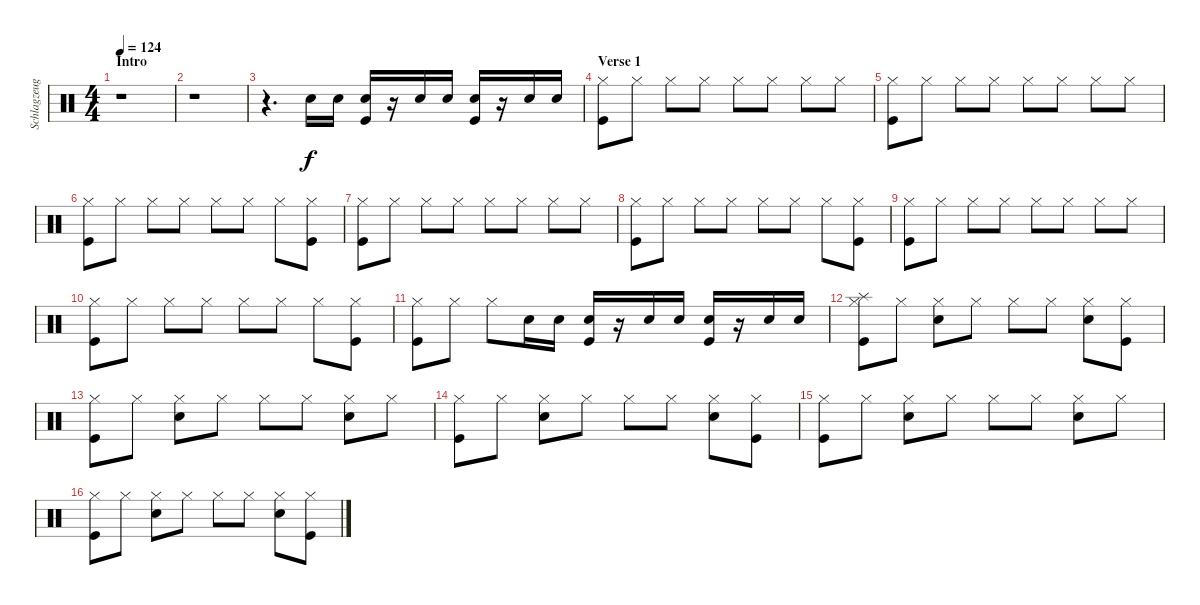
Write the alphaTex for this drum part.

\track ("Schlagzeug - Bela B." "Schlagzeug") {instrument percussion}
\staff {score}
\articulation defaults
\ts (4 4)
\section ("" "Intro")
\tempo 124
\clef neutral
\ks c
r.1{dy f} |
r.1 |
r.4{d} "Snare (hit) 2".16 "Snare (hit) 2".16 ("Snare (hit) 2" "Kick (hit)").16 r.16 "Snare (hit) 2".16 "Snare (hit) 2".16 ("Snare (hit) 2" "Kick (hit)").16 r.16 "Snare (hit) 2".16 "Snare (hit) 2".16 |
\section ("" "Verse 1")
("Kick (hit)" "Hi-Hat (closed)").8 "Hi-Hat (closed)".8 "Hi-Hat (closed)".8 "Hi-Hat (closed)".8 "Hi-Hat (closed)".8 "Hi-Hat (closed)".8 "Hi-Hat (closed)".8 "Hi-Hat (closed)".8 |
("Kick (hit)" "Hi-Hat (closed)").8 "Hi-Hat (closed)".8 "Hi-Hat (closed)".8 "Hi-Hat (closed)".8 "Hi-Hat (closed)".8 "Hi-Hat (closed)".8 "Hi-Hat (closed)".8 "Hi-Hat (closed)".8 |
("Kick (hit)" "Hi-Hat (closed)").8 "Hi-Hat (closed)".8 "Hi-Hat (closed)".8 "Hi-Hat (closed)".8 "Hi-Hat (closed)".8 "Hi-Hat (closed)".8 "Hi-Hat (closed)".8 ("Hi-Hat (closed)" "Kick (hit)").8 |
("Kick (hit)" "Hi-Hat (closed)").8 "Hi-Hat (closed)".8 "Hi-Hat (closed)".8 "Hi-Hat (closed)".8 "Hi-Hat (closed)".8 "Hi-Hat (closed)".8 "Hi-Hat (closed)".8 "Hi-Hat (closed)".8 |
("Kick (hit)" "Hi-Hat (closed)").8 "Hi-Hat (closed)".8 "Hi-Hat (closed)".8 "Hi-Hat (closed)".8 "Hi-Hat (closed)".8 "Hi-Hat (closed)".8 "Hi-Hat (closed)".8 ("Hi-Hat (closed)" "Kick (hit)").8 |
("Kick (hit)" "Hi-Hat (closed)").8 "Hi-Hat (closed)".8 "Hi-Hat (closed)".8 "Hi-Hat (closed)".8 "Hi-Hat (closed)".8 "Hi-Hat (closed)".8 "Hi-Hat (closed)".8 "Hi-Hat (closed)".8 |
("Kick (hit)" "Hi-Hat (closed)").8 "Hi-Hat (closed)".8 "Hi-Hat (closed)".8 "Hi-Hat (closed)".8 "Hi-Hat (closed)".8 "Hi-Hat (closed)".8 "Hi-Hat (closed)".8 ("Hi-Hat (closed)" "Kick (hit)").8 |
("Kick (hit)" "Hi-Hat (closed)").8 "Hi-Hat (closed)".8 "Hi-Hat (closed)".8 "Snare (hit) 2".16 "Snare (hit) 2".16 ("Snare (hit) 2" "Kick (hit)").16 r.16 "Snare (hit) 2".16 "Snare (hit) 2".16 ("Snare (hit) 2" "Kick (hit)").16 r.16 "Snare (hit) 2".16 "Snare (hit) 2".16 |
("Kick (hit)" "Hi-Hat (closed)" "Splash (hit)").8 "Hi-Hat (closed)".8 ("Hi-Hat (closed)" "Snare (hit) 2").8 "Hi-Hat (closed)".8 "Hi-Hat (closed)".8 "Hi-Hat (closed)".8 ("Hi-Hat (closed)" "Snare (hit) 2").8 ("Hi-Hat (closed)" "Kick (hit)").8 |
("Kick (hit)" "Hi-Hat (closed)").8 "Hi-Hat (closed)".8 ("Hi-Hat (closed)" "Snare (hit) 2").8 "Hi-Hat (closed)".8 "Hi-Hat (closed)".8 "Hi-Hat (closed)".8 ("Hi-Hat (closed)" "Snare (hit) 2").8 "Hi-Hat (closed)".8 |
("Kick (hit)" "Hi-Hat (closed)").8 "Hi-Hat (closed)".8 ("Hi-Hat (closed)" "Snare (hit) 2").8 "Hi-Hat (closed)".8 "Hi-Hat (closed)".8 "Hi-Hat (closed)".8 ("Hi-Hat (closed)" "Snare (hit) 2").8 ("Hi-Hat (closed)" "Kick (hit)").8 |
("Kick (hit)" "Hi-Hat (closed)").8 "Hi-Hat (closed)".8 ("Hi-Hat (closed)" "Snare (hit) 2").8 "Hi-Hat (closed)".8 "Hi-Hat (closed)".8 "Hi-Hat (closed)".8 ("Hi-Hat (closed)" "Snare (hit) 2").8 "Hi-Hat (closed)".8 |
("Kick (hit)" "Hi-Hat (closed)").8 "Hi-Hat (closed)".8 ("Hi-Hat (closed)" "Snare (hit) 2").8 "Hi-Hat (closed)".8 "Hi-Hat (closed)".8 "Hi-Hat (closed)".8 ("Hi-Hat (closed)" "Snare (hit) 2").8 ("Hi-Hat (closed)" "Kick (hit)").8
